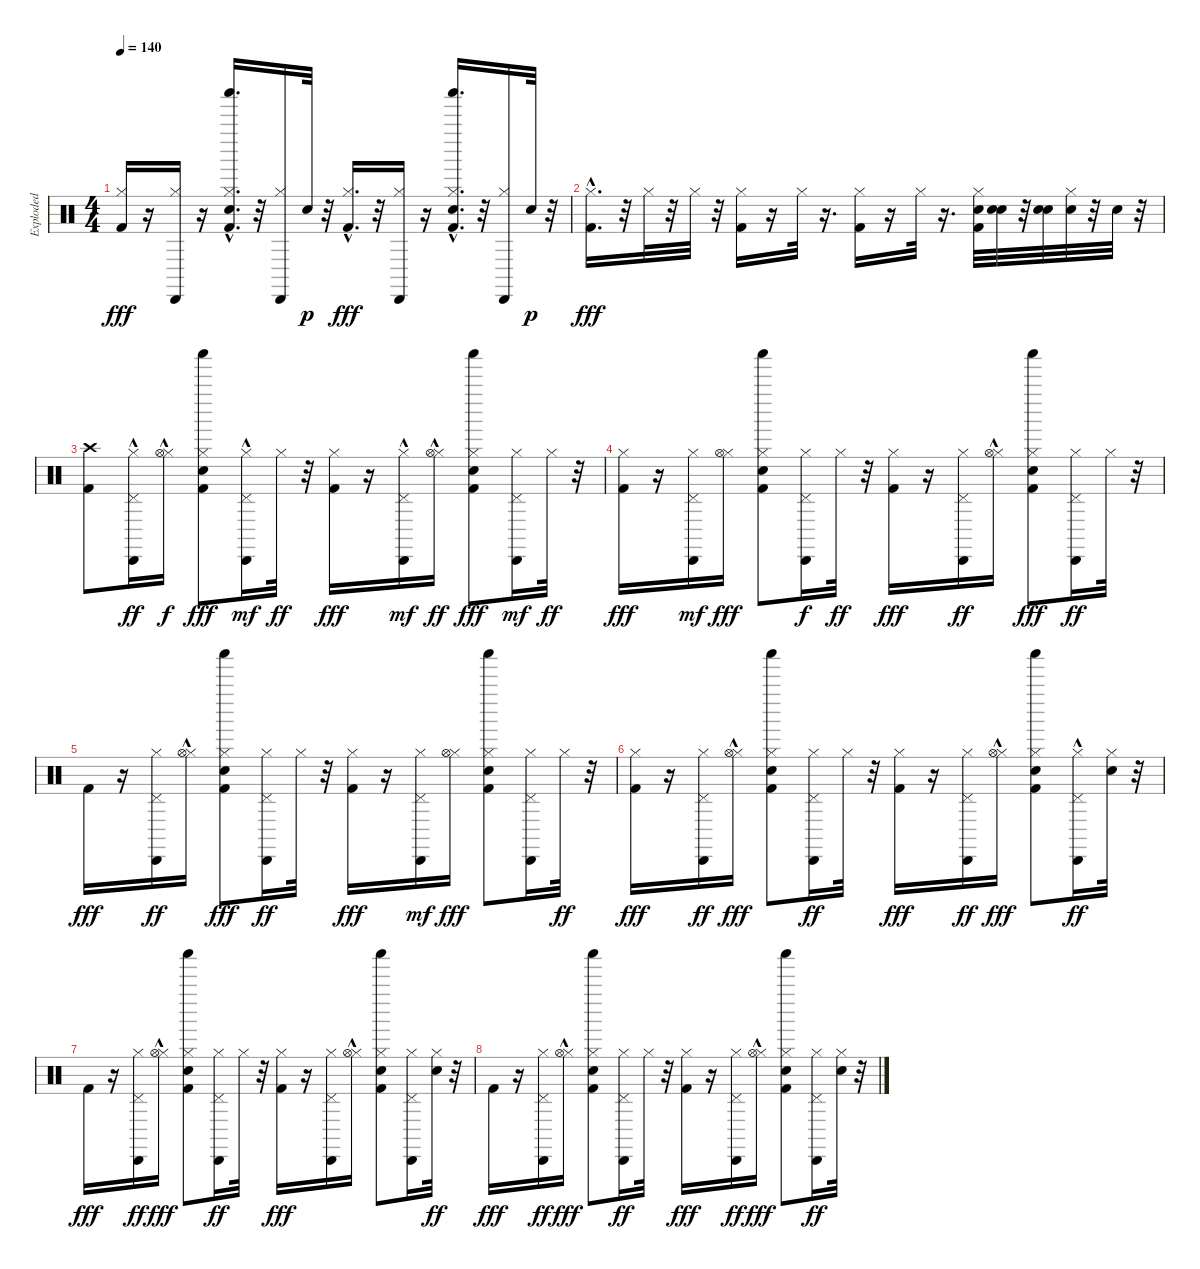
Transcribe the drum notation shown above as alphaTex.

\track ("Exploded" "Exploded") {instrument percussion}
\staff {score}
\articulation defaults
\ts (4 4)
\tempo 140
\clef neutral
\ks c
("Hi-Hat (closed)" "Kick (hit) 2").16{dy fff} r.16 ("Hi-Hat (closed)" "Cabasa (hit)").16 r.16 ("Hi-Hat (closed)" "Shaker (hit)"{hac} "Hand Clap (hit)" "Kick (hit) 2"{hac}).16{d} r.32 ("Hi-Hat (closed)" "Cabasa (hit)").16 "Snare (hit) 2".32{dy p} r.32 ("Hi-Hat (closed)" "Kick (hit) 2"{hac}).16{d dy fff} r.32 ("Hi-Hat (closed)" "Cabasa (hit)").16 r.16 ("Hi-Hat (closed)" "Shaker (hit)"{hac} "Hand Clap (hit)"{hac} "Kick (hit) 2"{hac}).16{d} r.32 ("Hi-Hat (closed)" "Cabasa (hit)").16 "Snare (hit) 2".32{dy p} r.32 |
("Hi-Hat (closed)" "Kick (hit) 2"{hac}).16{d dy fff} r.32 "Hi-Hat (closed)".32 r.32 "Hi-Hat (closed)".32 r.32 ("Hi-Hat (closed)" "Kick (hit) 2").16 r.16 "Hi-Hat (closed)".32 r.16{d} ("Hi-Hat (closed)" "Kick (hit) 2").16 r.16 "Hi-Hat (closed)".32 r.16{d} ("Hand Clap (hit)" "Hi-Hat (closed)" "Kick (hit) 2").32 ("Hand Clap (hit)" "Hand Clap (hit)").32 r.32 ("Hand Clap (hit)" "Hand Clap (hit)").32 ("Hi-Hat (closed)" "Hand Clap (hit)").32 r.32 "Hand Clap (hit)".32 r.32 |
("Crash high (hit)" "Kick (hit) 2").8 ("Cabasa (hit)" "Hi-Hat (closed)" "Pedal Hi-Hat (hit)"{hac}).16{dy ff} ("Hi-Hat (closed)" "Hi-Hat (open)"{hac}).16{dy f} ("Hand Clap (hit)" "Shaker (hit)" "Hi-Hat (closed)" "Kick (hit) 2").8{dy fff} ("Cabasa (hit)"{hac} "Hi-Hat (closed)" "Pedal Hi-Hat (hit)"{hac}).16{dy mf} "Hi-Hat (closed)".32{dy ff} r.32 ("Hi-Hat (closed)" "Kick (hit) 2").16{dy fff} r.16 ("Cabasa (hit)" "Hi-Hat (closed)" "Pedal Hi-Hat (hit)"{hac}).16{dy mf} ("Hi-Hat (closed)" "Hi-Hat (open)"{hac}).16{dy ff} ("Hand Clap (hit)" "Shaker (hit)" "Hi-Hat (closed)" "Kick (hit) 2").8{dy fff} ("Cabasa (hit)" "Hi-Hat (closed)" "Pedal Hi-Hat (hit)").16{dy mf} "Hi-Hat (closed)".32{dy ff} r.32 |
("Hi-Hat (closed)" "Kick (hit) 2").16{dy fff} r.16 ("Cabasa (hit)" "Hi-Hat (closed)" "Pedal Hi-Hat (hit)").16{dy mf} ("Hi-Hat (closed)" "Hi-Hat (open)").16{dy fff} ("Hand Clap (hit)" "Shaker (hit)" "Hi-Hat (closed)" "Kick (hit) 2").8 ("Cabasa (hit)" "Hi-Hat (closed)" "Pedal Hi-Hat (hit)").16{dy f} "Hi-Hat (closed)".32{dy ff} r.32 ("Hi-Hat (closed)" "Kick (hit) 2").16{dy fff} r.16 ("Cabasa (hit)" "Hi-Hat (closed)" "Pedal Hi-Hat (hit)").16{dy ff} ("Hi-Hat (closed)" "Hi-Hat (open)"{hac}).16 ("Hand Clap (hit)" "Shaker (hit)" "Hi-Hat (closed)" "Kick (hit) 2").8{dy fff} ("Cabasa (hit)" "Hi-Hat (closed)" "Pedal Hi-Hat (hit)").16{dy ff} "Hi-Hat (closed)".32 r.32 |
"Kick (hit) 2".16{dy fff} r.16 ("Cabasa (hit)" "Hi-Hat (closed)" "Pedal Hi-Hat (hit)").16{dy ff} ("Hi-Hat (closed)" "Hi-Hat (open)"{hac}).16 ("Hand Clap (hit)" "Shaker (hit)" "Hi-Hat (closed)" "Kick (hit) 2").8{dy fff} ("Cabasa (hit)" "Hi-Hat (closed)" "Pedal Hi-Hat (hit)").16{dy ff} "Hi-Hat (closed)".32 r.32 ("Hi-Hat (closed)" "Kick (hit) 2").16{dy fff} r.16 ("Cabasa (hit)" "Hi-Hat (closed)" "Pedal Hi-Hat (hit)").16{dy mf} ("Hi-Hat (closed)" "Hi-Hat (open)").16{dy fff} ("Hand Clap (hit)" "Shaker (hit)" "Hi-Hat (closed)" "Kick (hit) 2").8 ("Cabasa (hit)" "Hi-Hat (closed)" "Pedal Hi-Hat (hit)").16 "Hi-Hat (closed)".32{dy ff} r.32 |
("Hi-Hat (closed)" "Kick (hit) 2").16{dy fff} r.16 ("Cabasa (hit)" "Hi-Hat (closed)" "Pedal Hi-Hat (hit)").16{dy ff} ("Hi-Hat (closed)" "Hi-Hat (open)"{hac}).16{dy fff} ("Hand Clap (hit)" "Shaker (hit)" "Hi-Hat (closed)" "Kick (hit) 2").8 ("Cabasa (hit)" "Hi-Hat (closed)" "Pedal Hi-Hat (hit)").16{dy ff} "Hi-Hat (closed)".32 r.32 ("Hi-Hat (closed)" "Kick (hit) 2").16{dy fff} r.16 ("Cabasa (hit)" "Hi-Hat (closed)" "Pedal Hi-Hat (hit)").16{dy ff} ("Hi-Hat (closed)" "Hi-Hat (open)"{hac}).16{dy fff} ("Hand Clap (hit)" "Shaker (hit)" "Hi-Hat (closed)" "Kick (hit) 2").8 ("Cabasa (hit)"{hac} "Hi-Hat (closed)" "Pedal Hi-Hat (hit)").16{dy ff} ("Snare (hit) 2" "Hi-Hat (closed)").32 r.32 |
"Kick (hit) 2".16{dy fff} r.16 ("Cabasa (hit)" "Hi-Hat (closed)" "Pedal Hi-Hat (hit)").16{dy ff} ("Hi-Hat (closed)" "Hi-Hat (open)"{hac}).16{dy fff} ("Hand Clap (hit)" "Shaker (hit)" "Hi-Hat (closed)" "Kick (hit) 2").8 ("Cabasa (hit)" "Hi-Hat (closed)" "Pedal Hi-Hat (hit)").16{dy ff} "Hi-Hat (closed)".32 r.32 ("Hi-Hat (closed)" "Kick (hit) 2").16{dy fff} r.16 ("Cabasa (hit)" "Hi-Hat (closed)" "Pedal Hi-Hat (hit)").16 ("Hi-Hat (closed)" "Hi-Hat (open)"{hac}).16 ("Hand Clap (hit)" "Shaker (hit)" "Hi-Hat (closed)" "Kick (hit) 2").8 ("Cabasa (hit)" "Hi-Hat (closed)" "Pedal Hi-Hat (hit)").16 ("Snare (hit) 2" "Hi-Hat (closed)").32{dy ff} r.32 |
"Kick (hit) 2".16{dy fff} r.16 ("Cabasa (hit)" "Hi-Hat (closed)" "Pedal Hi-Hat (hit)").16{dy ff} ("Hi-Hat (closed)" "Hi-Hat (open)"{hac}).16{dy fff} ("Hand Clap (hit)" "Shaker (hit)" "Hi-Hat (closed)" "Kick (hit) 2").8 ("Cabasa (hit)" "Hi-Hat (closed)" "Pedal Hi-Hat (hit)").16{dy ff} "Hi-Hat (closed)".32 r.32 ("Hi-Hat (closed)" "Kick (hit) 2").16{dy fff} r.16 ("Cabasa (hit)" "Hi-Hat (closed)" "Pedal Hi-Hat (hit)").16{dy ff} ("Hi-Hat (closed)" "Hi-Hat (open)"{hac}).16{dy fff} ("Hand Clap (hit)" "Shaker (hit)" "Hi-Hat (closed)" "Kick (hit) 2").8 ("Cabasa (hit)" "Hi-Hat (closed)" "Pedal Hi-Hat (hit)").16{dy ff} ("Snare (hit) 2" "Hi-Hat (closed)").32 r.32
